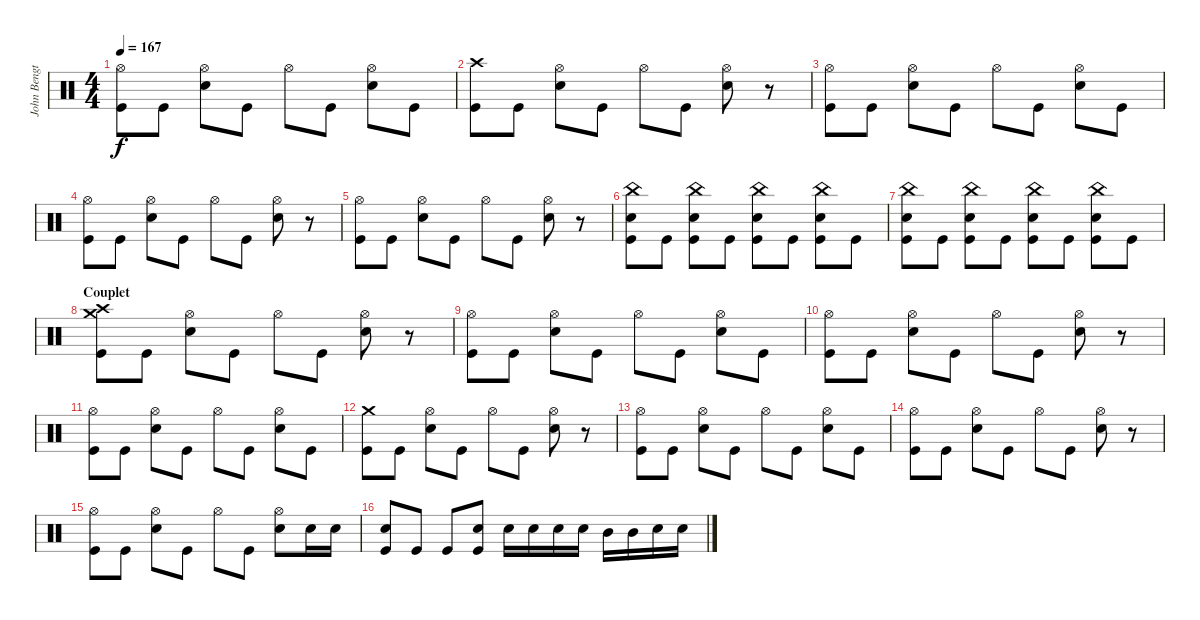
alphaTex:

\track ("John Bengtsson" "John Bengt") {instrument percussion}
\staff {score}
\articulation defaults
\ts (4 4)
\tempo 167
\clef neutral
\ks c
("Hi-Hat (open)" "Kick (hit)").8{dy f} "Kick (hit)".8 ("Hi-Hat (open)" "Snare (hit) 2").8 "Kick (hit)".8 "Hi-Hat (open)".8 "Kick (hit)".8 ("Hi-Hat (open)" "Snare (hit) 2").8 "Kick (hit)".8 |
("Crash high (hit)" "Kick (hit)").8 "Kick (hit)".8 ("Hi-Hat (open)" "Snare (hit) 2").8 "Kick (hit)".8 "Hi-Hat (open)".8 "Kick (hit)".8 ("Hi-Hat (open)" "Snare (hit) 2").8 r.8 |
("Hi-Hat (open)" "Kick (hit)").8 "Kick (hit)".8 ("Hi-Hat (open)" "Snare (hit) 2").8 "Kick (hit)".8 "Hi-Hat (open)".8 "Kick (hit)".8 ("Hi-Hat (open)" "Snare (hit) 2").8 "Kick (hit)".8 |
("Hi-Hat (open)" "Kick (hit)").8 "Kick (hit)".8 ("Hi-Hat (open)" "Snare (hit) 2").8 "Kick (hit)".8 "Hi-Hat (open)".8 "Kick (hit)".8 ("Hi-Hat (open)" "Snare (hit) 2").8 r.8 |
("Hi-Hat (open)" "Kick (hit)").8 "Kick (hit)".8 ("Hi-Hat (open)" "Snare (hit) 2").8 "Kick (hit)".8 "Hi-Hat (open)".8 "Kick (hit)".8 ("Hi-Hat (open)" "Snare (hit) 2").8 r.8 |
("China (hit)" "Snare (hit) 2" "Kick (hit)").8 "Kick (hit)".8 ("China (hit)" "Snare (hit) 2" "Kick (hit)").8 "Kick (hit)".8 ("China (hit)" "Snare (hit) 2" "Kick (hit)").8 "Kick (hit)".8 ("China (hit)" "Snare (hit) 2" "Kick (hit)").8 "Kick (hit)".8 |
("China (hit)" "Snare (hit) 2" "Kick (hit)").8 "Kick (hit)".8 ("China (hit)" "Snare (hit) 2" "Kick (hit)").8 "Kick (hit)".8 ("China (hit)" "Snare (hit) 2" "Kick (hit)").8 "Kick (hit)".8 ("China (hit)" "Snare (hit) 2" "Kick (hit)").8 "Kick (hit)".8 |
\section ("" "Couplet")
("Crash medium (hit)" "Crash high (hit)" "Kick (hit)").8 "Kick (hit)".8 ("Hi-Hat (open)" "Snare (hit) 2").8 "Kick (hit)".8 "Hi-Hat (open)".8 "Kick (hit)".8 ("Hi-Hat (open)" "Snare (hit) 2").8 r.8 |
("Hi-Hat (open)" "Kick (hit)").8 "Kick (hit)".8 ("Hi-Hat (open)" "Snare (hit) 2").8 "Kick (hit)".8 "Hi-Hat (open)".8 "Kick (hit)".8 ("Hi-Hat (open)" "Snare (hit) 2").8 "Kick (hit)".8 |
("Hi-Hat (open)" "Kick (hit)").8 "Kick (hit)".8 ("Hi-Hat (open)" "Snare (hit) 2").8 "Kick (hit)".8 "Hi-Hat (open)".8 "Kick (hit)".8 ("Hi-Hat (open)" "Snare (hit) 2").8 r.8 |
("Hi-Hat (open)" "Kick (hit)").8 "Kick (hit)".8 ("Hi-Hat (open)" "Snare (hit) 2").8 "Kick (hit)".8 "Hi-Hat (open)".8 "Kick (hit)".8 ("Hi-Hat (open)" "Snare (hit) 2").8 "Kick (hit)".8 |
("Crash medium (hit)" "Kick (hit)").8 "Kick (hit)".8 ("Hi-Hat (open)" "Snare (hit) 2").8 "Kick (hit)".8 "Hi-Hat (open)".8 "Kick (hit)".8 ("Hi-Hat (open)" "Snare (hit) 2").8 r.8 |
("Hi-Hat (open)" "Kick (hit)").8 "Kick (hit)".8 ("Hi-Hat (open)" "Snare (hit) 2").8 "Kick (hit)".8 "Hi-Hat (open)".8 "Kick (hit)".8 ("Hi-Hat (open)" "Snare (hit) 2").8 "Kick (hit)".8 |
("Hi-Hat (open)" "Kick (hit)").8 "Kick (hit)".8 ("Hi-Hat (open)" "Snare (hit) 2").8 "Kick (hit)".8 "Hi-Hat (open)".8 "Kick (hit)".8 ("Hi-Hat (open)" "Snare (hit) 2").8 r.8 |
("Hi-Hat (open)" "Kick (hit)").8 "Kick (hit)".8 ("Hi-Hat (open)" "Snare (hit) 2").8 "Kick (hit)".8 "Hi-Hat (open)".8 "Kick (hit)".8 ("Hi-Hat (open)" "Snare (hit) 2").8 "Snare (hit) 2".16 "Snare (hit) 2".16 |
("Snare (hit) 2" "Kick (hit)").8 "Kick (hit)".8 "Kick (hit)".8 ("Snare (hit) 2" "Kick (hit)").8 "Snare (hit) 2".16 "Snare (hit) 2".16 "Snare (hit) 2".16 "Snare (hit) 2".16 "Mid Tom (hit)".16 "Mid Tom (hit)".16 "Snare (hit) 2".16 "Snare (hit) 2".16
